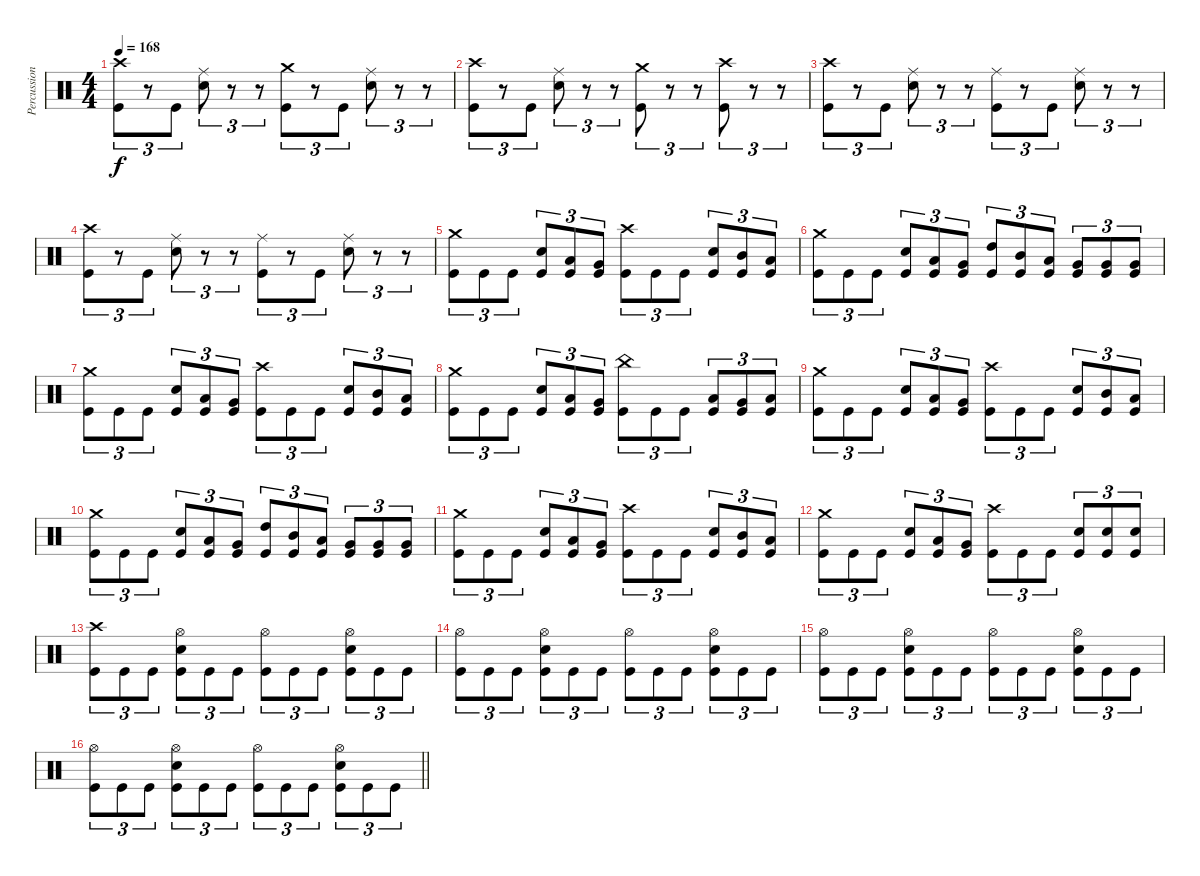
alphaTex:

\track ("Percussion" "Percussion") {instrument percussion}
\staff {score}
\articulation defaults
\ts (4 4)
\tempo 168
\clef neutral
\ks c
("Crash high (hit)" "Kick (hit)").8{tu (3 2) dy f} r.8{tu (3 2)} "Kick (hit)".8{tu (3 2)} ("Ride (middle)" "Electric Snare (hit)").8{tu (3 2)} r.8{tu (3 2)} r.8{tu (3 2)} ("Crash medium (hit)" "Kick (hit)").8{tu (3 2)} r.8{tu (3 2)} "Kick (hit)".8{tu (3 2)} ("Ride (middle)" "Electric Snare (hit)").8{tu (3 2)} r.8{tu (3 2)} r.8{tu (3 2)} |
("Crash high (hit)" "Kick (hit)").8{tu (3 2)} r.8{tu (3 2)} "Kick (hit)".8{tu (3 2)} ("Ride (middle)" "Electric Snare (hit)").8{tu (3 2)} r.8{tu (3 2)} r.8{tu (3 2)} ("Crash medium (hit)" "Kick (hit)").8{tu (3 2)} r.8{tu (3 2)} r.8{tu (3 2)} ("Crash high (hit)" "Kick (hit)").8{tu (3 2)} r.8{tu (3 2)} r.8{tu (3 2)} |
("Crash high (hit)" "Kick (hit)").8{tu (3 2)} r.8{tu (3 2)} "Kick (hit)".8{tu (3 2)} ("Ride (middle)" "Electric Snare (hit)").8{tu (3 2)} r.8{tu (3 2)} r.8{tu (3 2)} ("Ride (middle)" "Kick (hit)").8{tu (3 2)} r.8{tu (3 2)} "Kick (hit)".8{tu (3 2)} ("Ride (middle)" "Electric Snare (hit)").8{tu (3 2)} r.8{tu (3 2)} r.8{tu (3 2)} |
("Crash high (hit)" "Kick (hit)").8{tu (3 2)} r.8{tu (3 2)} "Kick (hit)".8{tu (3 2)} ("Ride (middle)" "Electric Snare (hit)").8{tu (3 2)} r.8{tu (3 2)} r.8{tu (3 2)} ("Ride (middle)" "Kick (hit)").8{tu (3 2)} r.8{tu (3 2)} "Kick (hit)".8{tu (3 2)} ("Ride (middle)" "Electric Snare (hit)").8{tu (3 2)} r.8{tu (3 2)} r.8{tu (3 2)} |
("Crash medium (hit)" "Kick (hit)").8{tu (3 2)} "Kick (hit)".8{tu (3 2)} "Kick (hit)".8{tu (3 2)} ("Electric Snare (hit)" "Kick (hit)").8{tu (3 2)} ("Low Tom (hit)" "Kick (hit)").8{tu (3 2)} ("Very Low Tom (hit)" "Kick (hit)").8{tu (3 2)} ("Crash high (hit)" "Kick (hit)").8{tu (3 2)} "Kick (hit)".8{tu (3 2)} "Kick (hit)".8{tu (3 2)} ("Electric Snare (hit)" "Kick (hit)").8{tu (3 2)} ("Mid Tom (hit)" "Kick (hit)").8{tu (3 2)} ("Low Tom (hit)" "Kick (hit)").8{tu (3 2)} |
("Crash medium (hit)" "Kick (hit)").8{tu (3 2)} "Kick (hit)".8{tu (3 2)} "Kick (hit)".8{tu (3 2)} ("Electric Snare (hit)" "Kick (hit)").8{tu (3 2)} ("Low Tom (hit)" "Kick (hit)").8{tu (3 2)} ("Very Low Tom (hit)" "Kick (hit)").8{tu (3 2)} ("High Tom (hit)" "Kick (hit)").8{tu (3 2)} ("Mid Tom (hit)" "Kick (hit)").8{tu (3 2)} ("Low Tom (hit)" "Kick (hit)").8{tu (3 2)} ("Very Low Tom (hit)" "Kick (hit)").8{tu (3 2)} ("Very Low Tom (hit)" "Kick (hit)").8{tu (3 2)} ("Very Low Tom (hit)" "Kick (hit)").8{tu (3 2)} |
("Crash medium (hit)" "Kick (hit)").8{tu (3 2)} "Kick (hit)".8{tu (3 2)} "Kick (hit)".8{tu (3 2)} ("Electric Snare (hit)" "Kick (hit)").8{tu (3 2)} ("Low Tom (hit)" "Kick (hit)").8{tu (3 2)} ("Very Low Tom (hit)" "Kick (hit)").8{tu (3 2)} ("Crash high (hit)" "Kick (hit)").8{tu (3 2)} "Kick (hit)".8{tu (3 2)} "Kick (hit)".8{tu (3 2)} ("Electric Snare (hit)" "Kick (hit)").8{tu (3 2)} ("Mid Tom (hit)" "Kick (hit)").8{tu (3 2)} ("Low Tom (hit)" "Kick (hit)").8{tu (3 2)} |
("Crash medium (hit)" "Kick (hit)").8{tu (3 2)} "Kick (hit)".8{tu (3 2)} "Kick (hit)".8{tu (3 2)} ("Electric Snare (hit)" "Kick (hit)").8{tu (3 2)} ("Low Tom (hit)" "Kick (hit)").8{tu (3 2)} ("Very Low Tom (hit)" "Kick (hit)").8{tu (3 2)} ("China (hit)" "Kick (hit)").8{tu (3 2)} "Kick (hit)".8{tu (3 2)} "Kick (hit)".8{tu (3 2)} ("Low Tom (hit)" "Kick (hit)").8{tu (3 2)} ("Very Low Tom (hit)" "Kick (hit)").8{tu (3 2)} ("Low Floor Tom (hit)" "Kick (hit)").8{tu (3 2)} |
("Crash medium (hit)" "Kick (hit)").8{tu (3 2)} "Kick (hit)".8{tu (3 2)} "Kick (hit)".8{tu (3 2)} ("Electric Snare (hit)" "Kick (hit)").8{tu (3 2)} ("Low Tom (hit)" "Kick (hit)").8{tu (3 2)} ("Very Low Tom (hit)" "Kick (hit)").8{tu (3 2)} ("Crash high (hit)" "Kick (hit)").8{tu (3 2)} "Kick (hit)".8{tu (3 2)} "Kick (hit)".8{tu (3 2)} ("Electric Snare (hit)" "Kick (hit)").8{tu (3 2)} ("Mid Tom (hit)" "Kick (hit)").8{tu (3 2)} ("Low Tom (hit)" "Kick (hit)").8{tu (3 2)} |
("Crash medium (hit)" "Kick (hit)").8{tu (3 2)} "Kick (hit)".8{tu (3 2)} "Kick (hit)".8{tu (3 2)} ("Electric Snare (hit)" "Kick (hit)").8{tu (3 2)} ("Low Tom (hit)" "Kick (hit)").8{tu (3 2)} ("Very Low Tom (hit)" "Kick (hit)").8{tu (3 2)} ("High Tom (hit)" "Kick (hit)").8{tu (3 2)} ("Mid Tom (hit)" "Kick (hit)").8{tu (3 2)} ("Low Tom (hit)" "Kick (hit)").8{tu (3 2)} ("Very Low Tom (hit)" "Kick (hit)").8{tu (3 2)} ("Very Low Tom (hit)" "Kick (hit)").8{tu (3 2)} ("Very Low Tom (hit)" "Kick (hit)").8{tu (3 2)} |
("Crash medium (hit)" "Kick (hit)").8{tu (3 2)} "Kick (hit)".8{tu (3 2)} "Kick (hit)".8{tu (3 2)} ("Electric Snare (hit)" "Kick (hit)").8{tu (3 2)} ("Low Tom (hit)" "Kick (hit)").8{tu (3 2)} ("Very Low Tom (hit)" "Kick (hit)").8{tu (3 2)} ("Crash high (hit)" "Kick (hit)").8{tu (3 2)} "Kick (hit)".8{tu (3 2)} "Kick (hit)".8{tu (3 2)} ("Electric Snare (hit)" "Kick (hit)").8{tu (3 2)} ("Mid Tom (hit)" "Kick (hit)").8{tu (3 2)} ("Low Tom (hit)" "Kick (hit)").8{tu (3 2)} |
("Crash medium (hit)" "Kick (hit)").8{tu (3 2)} "Kick (hit)".8{tu (3 2)} "Kick (hit)".8{tu (3 2)} ("Electric Snare (hit)" "Kick (hit)").8{tu (3 2)} ("Low Tom (hit)" "Kick (hit)").8{tu (3 2)} ("Very Low Tom (hit)" "Kick (hit)").8{tu (3 2)} ("Crash high (hit)" "Kick (hit)").8{tu (3 2)} "Kick (hit)".8{tu (3 2)} "Kick (hit)".8{tu (3 2)} ("Electric Snare (hit)" "Kick (hit)").8{tu (3 2)} ("Electric Snare (hit)" "Kick (hit)").8{tu (3 2)} ("Electric Snare (hit)" "Kick (hit)").8{tu (3 2)} |
("Crash high (hit)" "Kick (hit)").8{tu (3 2)} "Kick (hit)".8{tu (3 2)} "Kick (hit)".8{tu (3 2)} ("Hi-Hat (open)" "Electric Snare (hit)" "Kick (hit)").8{tu (3 2)} "Kick (hit)".8{tu (3 2)} "Kick (hit)".8{tu (3 2)} ("Hi-Hat (open)" "Kick (hit)").8{tu (3 2)} "Kick (hit)".8{tu (3 2)} "Kick (hit)".8{tu (3 2)} ("Hi-Hat (open)" "Electric Snare (hit)" "Kick (hit)").8{tu (3 2)} "Kick (hit)".8{tu (3 2)} "Kick (hit)".8{tu (3 2)} |
("Hi-Hat (open)" "Kick (hit)").8{tu (3 2)} "Kick (hit)".8{tu (3 2)} "Kick (hit)".8{tu (3 2)} ("Hi-Hat (open)" "Electric Snare (hit)" "Kick (hit)").8{tu (3 2)} "Kick (hit)".8{tu (3 2)} "Kick (hit)".8{tu (3 2)} ("Hi-Hat (open)" "Kick (hit)").8{tu (3 2)} "Kick (hit)".8{tu (3 2)} "Kick (hit)".8{tu (3 2)} ("Hi-Hat (open)" "Electric Snare (hit)" "Kick (hit)").8{tu (3 2)} "Kick (hit)".8{tu (3 2)} "Kick (hit)".8{tu (3 2)} |
("Hi-Hat (open)" "Kick (hit)").8{tu (3 2)} "Kick (hit)".8{tu (3 2)} "Kick (hit)".8{tu (3 2)} ("Hi-Hat (open)" "Electric Snare (hit)" "Kick (hit)").8{tu (3 2)} "Kick (hit)".8{tu (3 2)} "Kick (hit)".8{tu (3 2)} ("Hi-Hat (open)" "Kick (hit)").8{tu (3 2)} "Kick (hit)".8{tu (3 2)} "Kick (hit)".8{tu (3 2)} ("Hi-Hat (open)" "Electric Snare (hit)" "Kick (hit)").8{tu (3 2)} "Kick (hit)".8{tu (3 2)} "Kick (hit)".8{tu (3 2)} |
\barLineRight lightlight
("Hi-Hat (open)" "Kick (hit)").8{tu (3 2)} "Kick (hit)".8{tu (3 2)} "Kick (hit)".8{tu (3 2)} ("Hi-Hat (open)" "Electric Snare (hit)" "Kick (hit)").8{tu (3 2)} "Kick (hit)".8{tu (3 2)} "Kick (hit)".8{tu (3 2)} ("Hi-Hat (open)" "Kick (hit)").8{tu (3 2)} "Kick (hit)".8{tu (3 2)} "Kick (hit)".8{tu (3 2)} ("Hi-Hat (open)" "Electric Snare (hit)" "Kick (hit)").8{tu (3 2)} "Kick (hit)".8{tu (3 2)} "Kick (hit)".8{tu (3 2)}
